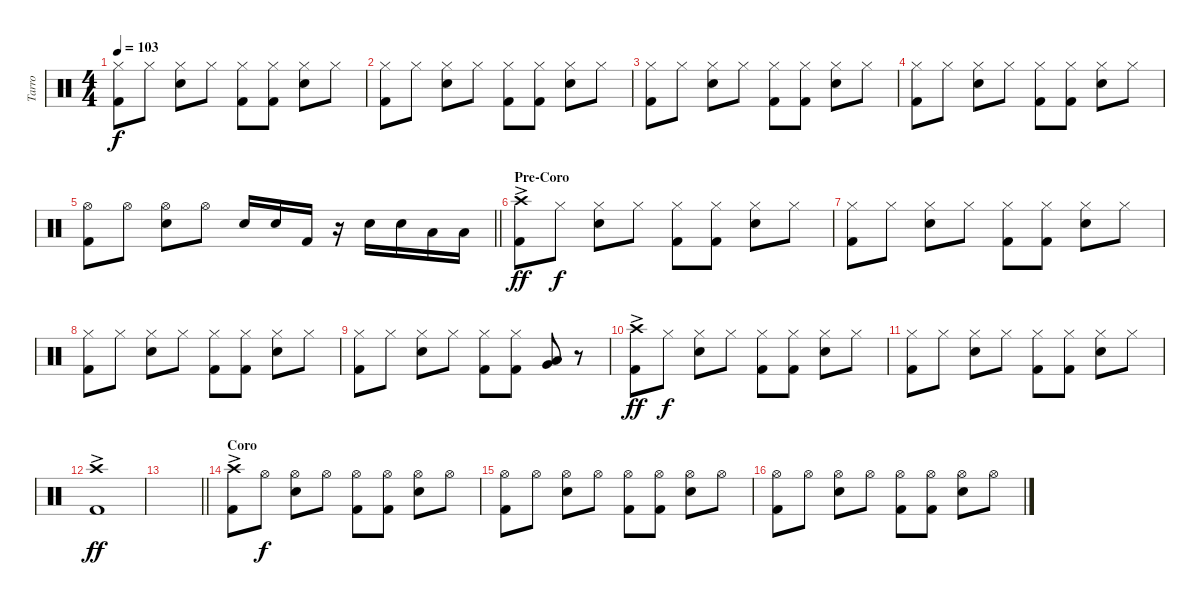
\track ("Tarro" "Tarro") {instrument percussion}
\staff {score}
\articulation defaults
\ts (4 4)
\tempo 103
\clef neutral
\ks c
("Hi-Hat (closed)" "Kick (hit) 2").8{dy f} "Hi-Hat (closed)".8 ("Hi-Hat (closed)" "Electric Snare (hit)").8 "Hi-Hat (closed)".8 ("Hi-Hat (closed)" "Kick (hit) 2").8 ("Hi-Hat (closed)" "Kick (hit) 2").8 ("Hi-Hat (closed)" "Electric Snare (hit)").8 "Hi-Hat (closed)".8 |
("Hi-Hat (closed)" "Kick (hit) 2").8 "Hi-Hat (closed)".8 ("Hi-Hat (closed)" "Electric Snare (hit)").8 "Hi-Hat (closed)".8 ("Hi-Hat (closed)" "Kick (hit) 2").8 ("Hi-Hat (closed)" "Kick (hit) 2").8 ("Hi-Hat (closed)" "Electric Snare (hit)").8 "Hi-Hat (closed)".8 |
("Hi-Hat (closed)" "Kick (hit) 2").8 "Hi-Hat (closed)".8 ("Hi-Hat (closed)" "Electric Snare (hit)").8 "Hi-Hat (closed)".8 ("Hi-Hat (closed)" "Kick (hit) 2").8 ("Hi-Hat (closed)" "Kick (hit) 2").8 ("Hi-Hat (closed)" "Electric Snare (hit)").8 "Hi-Hat (closed)".8 |
("Hi-Hat (closed)" "Kick (hit) 2").8 "Hi-Hat (closed)".8 ("Hi-Hat (closed)" "Electric Snare (hit)").8 "Hi-Hat (closed)".8 ("Hi-Hat (closed)" "Kick (hit) 2").8 ("Hi-Hat (closed)" "Kick (hit) 2").8 ("Hi-Hat (closed)" "Electric Snare (hit)").8 "Hi-Hat (closed)".8 |
\barLineRight lightlight
("Hi-Hat (open)" "Kick (hit) 2").8 "Hi-Hat (open)".8 ("Hi-Hat (open)" "Electric Snare (hit)").8 "Hi-Hat (open)".8 "Electric Snare (hit)".16 "Electric Snare (hit)".16 "Kick (hit) 2".16 r.16 "Electric Snare (hit)".16 "Electric Snare (hit)".16 "Low Floor Tom (hit)".16 "Low Floor Tom (hit)".16 |
\section ("" "Pre-Coro")
("Crash high (hit)"{ac} "Kick (hit) 2").8{dy ff} "Hi-Hat (closed)".8{dy f} ("Hi-Hat (closed)" "Electric Snare (hit)").8 "Hi-Hat (closed)".8 ("Hi-Hat (closed)" "Kick (hit) 2").8 ("Hi-Hat (closed)" "Kick (hit) 2").8 ("Hi-Hat (closed)" "Electric Snare (hit)").8 "Hi-Hat (closed)".8 |
("Hi-Hat (closed)" "Kick (hit) 2").8 "Hi-Hat (closed)".8 ("Hi-Hat (closed)" "Electric Snare (hit)").8 "Hi-Hat (closed)".8 ("Hi-Hat (closed)" "Kick (hit) 2").8 ("Hi-Hat (closed)" "Kick (hit) 2").8 ("Hi-Hat (closed)" "Electric Snare (hit)").8 "Hi-Hat (closed)".8 |
("Hi-Hat (closed)" "Kick (hit) 2").8 "Hi-Hat (closed)".8 ("Hi-Hat (closed)" "Electric Snare (hit)").8 "Hi-Hat (closed)".8 ("Hi-Hat (closed)" "Kick (hit) 2").8 ("Hi-Hat (closed)" "Kick (hit) 2").8 ("Hi-Hat (closed)" "Electric Snare (hit)").8 "Hi-Hat (closed)".8 |
("Hi-Hat (closed)" "Kick (hit) 2").8 "Hi-Hat (closed)".8 ("Hi-Hat (closed)" "Electric Snare (hit)").8 "Hi-Hat (closed)".8 ("Hi-Hat (closed)" "Kick (hit) 2").8 ("Hi-Hat (closed)" "Kick (hit) 2").8 ("Very Low Tom (hit)" "Low Floor Tom (hit)").8 r.8 |
("Crash high (hit)"{ac} "Kick (hit) 2").8{dy ff} "Hi-Hat (closed)".8{dy f} ("Hi-Hat (closed)" "Electric Snare (hit)").8 "Hi-Hat (closed)".8 ("Hi-Hat (closed)" "Kick (hit) 2").8 ("Hi-Hat (closed)" "Kick (hit) 2").8 ("Hi-Hat (closed)" "Electric Snare (hit)").8 "Hi-Hat (closed)".8 |
("Hi-Hat (closed)" "Kick (hit) 2").8 "Hi-Hat (closed)".8 ("Hi-Hat (closed)" "Electric Snare (hit)").8 "Hi-Hat (closed)".8 ("Hi-Hat (closed)" "Kick (hit) 2").8 ("Hi-Hat (closed)" "Kick (hit) 2").8 ("Hi-Hat (closed)" "Electric Snare (hit)").8 "Hi-Hat (closed)".8 |
("Crash high (hit)"{ac} "Kick (hit) 2").1{dy ff} |
\barLineRight lightlight
|
\section ("" "Coro")
("Crash high (hit)"{ac} "Kick (hit) 2").8 "Hi-Hat (open)".8{dy f} ("Hi-Hat (open)" "Electric Snare (hit)").8 "Hi-Hat (open)".8 ("Hi-Hat (open)" "Kick (hit) 2").8 ("Hi-Hat (open)" "Kick (hit) 2").8 ("Hi-Hat (open)" "Electric Snare (hit)").8 "Hi-Hat (open)".8 |
("Hi-Hat (open)" "Kick (hit) 2").8 "Hi-Hat (open)".8 ("Hi-Hat (open)" "Electric Snare (hit)").8 "Hi-Hat (open)".8 ("Hi-Hat (open)" "Kick (hit) 2").8 ("Hi-Hat (open)" "Kick (hit) 2").8 ("Hi-Hat (open)" "Electric Snare (hit)").8 "Hi-Hat (open)".8 |
("Hi-Hat (open)" "Kick (hit) 2").8 "Hi-Hat (open)".8 ("Hi-Hat (open)" "Electric Snare (hit)").8 "Hi-Hat (open)".8 ("Hi-Hat (open)" "Kick (hit) 2").8 ("Hi-Hat (open)" "Kick (hit) 2").8 ("Hi-Hat (open)" "Electric Snare (hit)").8 "Hi-Hat (open)".8
